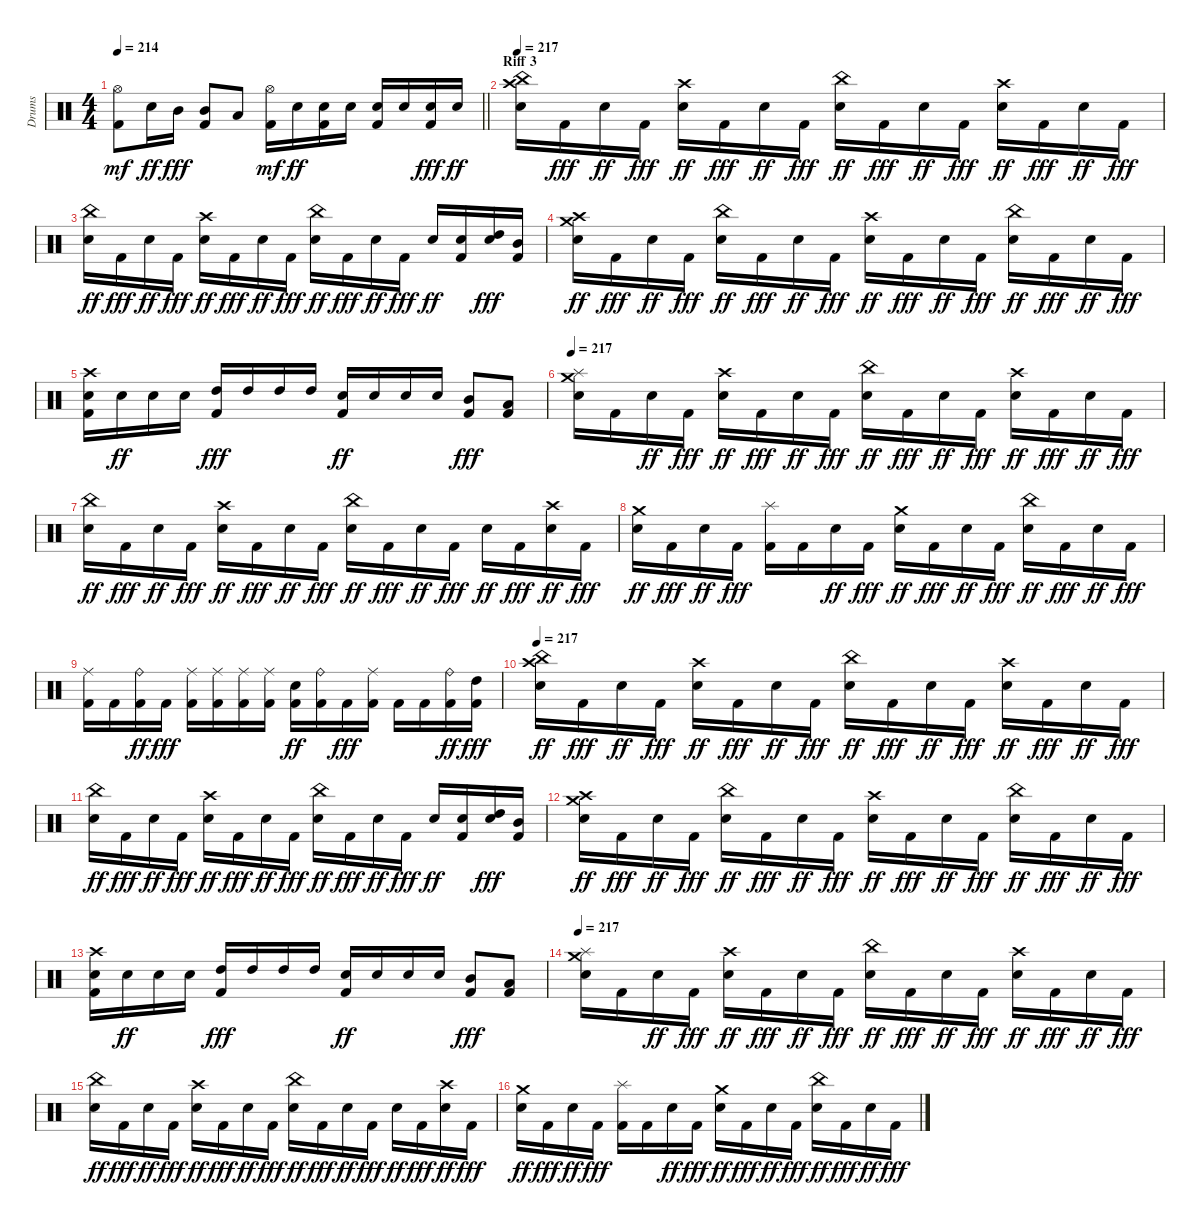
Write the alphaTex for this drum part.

\track ("Drums" "Drums") {instrument percussion}
\staff {score}
\articulation defaults
\ts (4 4)
\tempo 214
\clef neutral
\barLineRight lightlight
\ks c
("Kick (hit) 2" "Hi-Hat (open)").8{dy mf} "Snare (hit) 2".16{dy ff} "Mid Tom (hit)".16{dy fff} ("Kick (hit) 2" "Mid Tom (hit)").8 "Low Tom (hit)".8 ("Kick (hit) 2" "Hi-Hat (open)").16{dy mf} "Snare (hit) 2".16{dy ff} ("Kick (hit) 2" "Snare (hit) 2").16 "Snare (hit) 2".16 ("Kick (hit) 2" "Snare (hit) 2").16 "Snare (hit) 2".16 ("Kick (hit) 2" "Snare (hit) 2").16{dy fff} "Snare (hit) 2".16{dy ff} |
\section ("" "Riff 3")
\tempo 217
("Snare (hit) 2" "Crash high (hit)" "China (hit)").16 "Kick (hit) 2".16{dy fff} "Snare (hit) 2".16{dy ff} "Kick (hit) 2".16{dy fff} ("Snare (hit) 2" "Crash high (hit)").16{dy ff} "Kick (hit) 2".16{dy fff} "Snare (hit) 2".16{dy ff} "Kick (hit) 2".16{dy fff} ("Snare (hit) 2" "China (hit)").16{dy ff} "Kick (hit) 2".16{dy fff} "Snare (hit) 2".16{dy ff} "Kick (hit) 2".16{dy fff} ("Snare (hit) 2" "Crash high (hit)").16{dy ff} "Kick (hit) 2".16{dy fff} "Snare (hit) 2".16{dy ff} "Kick (hit) 2".16{dy fff} |
("Snare (hit) 2" "China (hit)").16{dy ff} "Kick (hit) 2".16{dy fff} "Snare (hit) 2".16{dy ff} "Kick (hit) 2".16{dy fff} ("Snare (hit) 2" "Crash high (hit)").16{dy ff} "Kick (hit) 2".16{dy fff} "Snare (hit) 2".16{dy ff} "Kick (hit) 2".16{dy fff} ("Snare (hit) 2" "China (hit)").16{dy ff} "Kick (hit) 2".16{dy fff} "Snare (hit) 2".16{dy ff} "Kick (hit) 2".16{dy fff} "Snare (hit) 2".16{dy ff} ("Kick (hit) 2" "Snare (hit) 2").16 ("Snare (hit) 2" "High Tom (hit)").16{dy fff} ("Kick (hit) 2" "Mid Tom (hit)").16 |
("Snare (hit) 2" "Crash high (hit)" "Crash medium (hit)").16{dy ff} "Kick (hit) 2".16{dy fff} "Snare (hit) 2".16{dy ff} "Kick (hit) 2".16{dy fff} ("Snare (hit) 2" "China (hit)").16{dy ff} "Kick (hit) 2".16{dy fff} "Snare (hit) 2".16{dy ff} "Kick (hit) 2".16{dy fff} ("Snare (hit) 2" "Crash high (hit)").16{dy ff} "Kick (hit) 2".16{dy fff} "Snare (hit) 2".16{dy ff} "Kick (hit) 2".16{dy fff} ("Snare (hit) 2" "China (hit)").16{dy ff} "Kick (hit) 2".16{dy fff} "Snare (hit) 2".16{dy ff} "Kick (hit) 2".16{dy fff} |
("Kick (hit) 2" "Snare (hit) 2" "Crash high (hit)").16 "Snare (hit) 2".16{dy ff} "Snare (hit) 2".16 "Snare (hit) 2".16 ("Kick (hit) 2" "High Tom (hit)").16{dy fff} "High Tom (hit)".16 "High Tom (hit)".16 "High Tom (hit)".16 ("Kick (hit) 2" "Snare (hit) 2").16{dy ff} "Snare (hit) 2".16 "Snare (hit) 2".16 "Snare (hit) 2".16 ("Kick (hit) 2" "Mid Tom (hit)").8{dy fff} ("Kick (hit) 2" "Low Tom (hit)").8 |
\tempo 217
("Snare (hit) 2" "Splash (hit)" "Crash medium (hit)").16 "Kick (hit) 2".16 "Snare (hit) 2".16{dy ff} "Kick (hit) 2".16{dy fff} ("Snare (hit) 2" "Crash high (hit)").16{dy ff} "Kick (hit) 2".16{dy fff} "Snare (hit) 2".16{dy ff} "Kick (hit) 2".16{dy fff} ("Snare (hit) 2" "China (hit)").16{dy ff} "Kick (hit) 2".16{dy fff} "Snare (hit) 2".16{dy ff} "Kick (hit) 2".16{dy fff} ("Snare (hit) 2" "Crash high (hit)").16{dy ff} "Kick (hit) 2".16{dy fff} "Snare (hit) 2".16{dy ff} "Kick (hit) 2".16{dy fff} |
("Snare (hit) 2" "China (hit)").16{dy ff} "Kick (hit) 2".16{dy fff} "Snare (hit) 2".16{dy ff} "Kick (hit) 2".16{dy fff} ("Snare (hit) 2" "Crash high (hit)").16{dy ff} "Kick (hit) 2".16{dy fff} "Snare (hit) 2".16{dy ff} "Kick (hit) 2".16{dy fff} ("Snare (hit) 2" "China (hit)").16{dy ff} "Kick (hit) 2".16{dy fff} "Snare (hit) 2".16{dy ff} "Kick (hit) 2".16{dy fff} "Snare (hit) 2".16{dy ff} "Kick (hit) 2".16{dy fff} ("Snare (hit) 2" "Crash high (hit)").16{dy ff} "Kick (hit) 2".16{dy fff} |
("Snare (hit) 2" "Crash medium (hit)").16{dy ff} "Kick (hit) 2".16{dy fff} "Snare (hit) 2".16{dy ff} "Kick (hit) 2".16{dy fff} ("Kick (hit) 2" "Splash (hit)").16 "Kick (hit) 2".16 "Snare (hit) 2".16{dy ff} "Kick (hit) 2".16{dy fff} ("Snare (hit) 2" "Crash medium (hit)").16{dy ff} "Kick (hit) 2".16{dy fff} "Snare (hit) 2".16{dy ff} "Kick (hit) 2".16{dy fff} ("Snare (hit) 2" "China (hit)").16{dy ff} "Kick (hit) 2".16{dy fff} "Snare (hit) 2".16{dy ff} "Kick (hit) 2".16{dy fff} |
("Kick (hit) 2" "Ride (middle)").16 "Kick (hit) 2".16 ("Kick (hit) 2" "Ride (bell)").16{dy ff} "Kick (hit) 2".16{dy fff} ("Kick (hit) 2" "Ride (middle)").16 ("Kick (hit) 2" "Ride (middle)").16 ("Kick (hit) 2" "Ride (middle)").16 ("Kick (hit) 2" "Ride (middle)").16 ("Kick (hit) 2" "Snare (hit) 2").16{dy ff} ("Kick (hit) 2" "Ride (bell)").16 "Kick (hit) 2".16{dy fff} ("Kick (hit) 2" "Ride (middle)").16 "Kick (hit) 2".16 "Kick (hit) 2".16 ("Kick (hit) 2" "Ride (bell)").16{dy ff} ("Kick (hit) 2" "High Tom (hit)").16{dy fff} |
\tempo 217
("Snare (hit) 2" "Crash high (hit)" "China (hit)").16{dy ff} "Kick (hit) 2".16{dy fff} "Snare (hit) 2".16{dy ff} "Kick (hit) 2".16{dy fff} ("Snare (hit) 2" "Crash high (hit)").16{dy ff} "Kick (hit) 2".16{dy fff} "Snare (hit) 2".16{dy ff} "Kick (hit) 2".16{dy fff} ("Snare (hit) 2" "China (hit)").16{dy ff} "Kick (hit) 2".16{dy fff} "Snare (hit) 2".16{dy ff} "Kick (hit) 2".16{dy fff} ("Snare (hit) 2" "Crash high (hit)").16{dy ff} "Kick (hit) 2".16{dy fff} "Snare (hit) 2".16{dy ff} "Kick (hit) 2".16{dy fff} |
("Snare (hit) 2" "China (hit)").16{dy ff} "Kick (hit) 2".16{dy fff} "Snare (hit) 2".16{dy ff} "Kick (hit) 2".16{dy fff} ("Snare (hit) 2" "Crash high (hit)").16{dy ff} "Kick (hit) 2".16{dy fff} "Snare (hit) 2".16{dy ff} "Kick (hit) 2".16{dy fff} ("Snare (hit) 2" "China (hit)").16{dy ff} "Kick (hit) 2".16{dy fff} "Snare (hit) 2".16{dy ff} "Kick (hit) 2".16{dy fff} "Snare (hit) 2".16{dy ff} ("Kick (hit) 2" "Snare (hit) 2").16 ("Snare (hit) 2" "High Tom (hit)").16{dy fff} ("Kick (hit) 2" "Mid Tom (hit)").16 |
("Snare (hit) 2" "Crash high (hit)" "Crash medium (hit)").16{dy ff} "Kick (hit) 2".16{dy fff} "Snare (hit) 2".16{dy ff} "Kick (hit) 2".16{dy fff} ("Snare (hit) 2" "China (hit)").16{dy ff} "Kick (hit) 2".16{dy fff} "Snare (hit) 2".16{dy ff} "Kick (hit) 2".16{dy fff} ("Snare (hit) 2" "Crash high (hit)").16{dy ff} "Kick (hit) 2".16{dy fff} "Snare (hit) 2".16{dy ff} "Kick (hit) 2".16{dy fff} ("Snare (hit) 2" "China (hit)").16{dy ff} "Kick (hit) 2".16{dy fff} "Snare (hit) 2".16{dy ff} "Kick (hit) 2".16{dy fff} |
("Kick (hit) 2" "Snare (hit) 2" "Crash high (hit)").16 "Snare (hit) 2".16{dy ff} "Snare (hit) 2".16 "Snare (hit) 2".16 ("Kick (hit) 2" "High Tom (hit)").16{dy fff} "High Tom (hit)".16 "High Tom (hit)".16 "High Tom (hit)".16 ("Kick (hit) 2" "Snare (hit) 2").16{dy ff} "Snare (hit) 2".16 "Snare (hit) 2".16 "Snare (hit) 2".16 ("Kick (hit) 2" "Mid Tom (hit)").8{dy fff} ("Kick (hit) 2" "Low Tom (hit)").8 |
\tempo 217
("Snare (hit) 2" "Splash (hit)" "Crash medium (hit)").16 "Kick (hit) 2".16 "Snare (hit) 2".16{dy ff} "Kick (hit) 2".16{dy fff} ("Snare (hit) 2" "Crash high (hit)").16{dy ff} "Kick (hit) 2".16{dy fff} "Snare (hit) 2".16{dy ff} "Kick (hit) 2".16{dy fff} ("Snare (hit) 2" "China (hit)").16{dy ff} "Kick (hit) 2".16{dy fff} "Snare (hit) 2".16{dy ff} "Kick (hit) 2".16{dy fff} ("Snare (hit) 2" "Crash high (hit)").16{dy ff} "Kick (hit) 2".16{dy fff} "Snare (hit) 2".16{dy ff} "Kick (hit) 2".16{dy fff} |
("Snare (hit) 2" "China (hit)").16{dy ff} "Kick (hit) 2".16{dy fff} "Snare (hit) 2".16{dy ff} "Kick (hit) 2".16{dy fff} ("Snare (hit) 2" "Crash high (hit)").16{dy ff} "Kick (hit) 2".16{dy fff} "Snare (hit) 2".16{dy ff} "Kick (hit) 2".16{dy fff} ("Snare (hit) 2" "China (hit)").16{dy ff} "Kick (hit) 2".16{dy fff} "Snare (hit) 2".16{dy ff} "Kick (hit) 2".16{dy fff} "Snare (hit) 2".16{dy ff} "Kick (hit) 2".16{dy fff} ("Snare (hit) 2" "Crash high (hit)").16{dy ff} "Kick (hit) 2".16{dy fff} |
("Snare (hit) 2" "Crash medium (hit)").16{dy ff} "Kick (hit) 2".16{dy fff} "Snare (hit) 2".16{dy ff} "Kick (hit) 2".16{dy fff} ("Kick (hit) 2" "Splash (hit)").16 "Kick (hit) 2".16 "Snare (hit) 2".16{dy ff} "Kick (hit) 2".16{dy fff} ("Snare (hit) 2" "Crash medium (hit)").16{dy ff} "Kick (hit) 2".16{dy fff} "Snare (hit) 2".16{dy ff} "Kick (hit) 2".16{dy fff} ("Snare (hit) 2" "China (hit)").16{dy ff} "Kick (hit) 2".16{dy fff} "Snare (hit) 2".16{dy ff} "Kick (hit) 2".16{dy fff}
